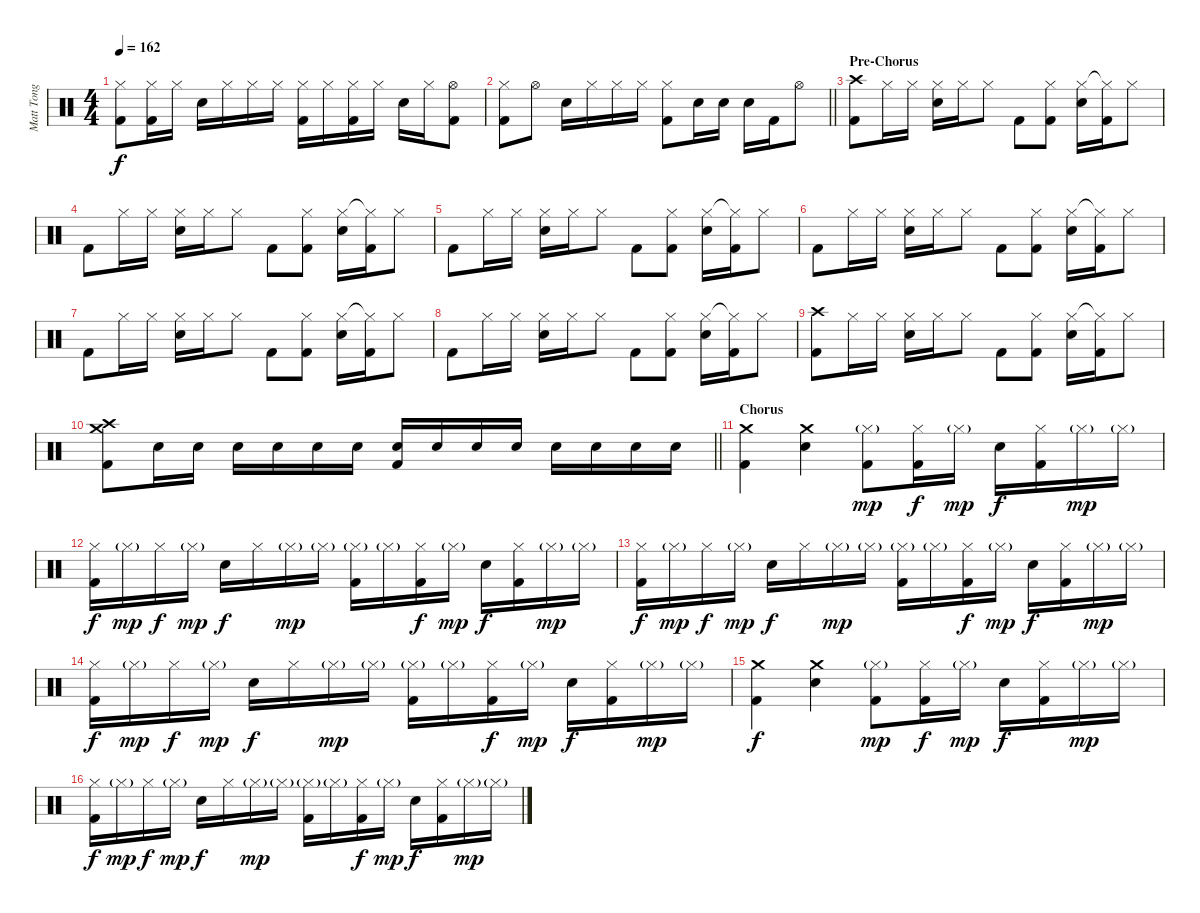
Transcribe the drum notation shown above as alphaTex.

\track ("Matt Tong" "Matt Tong") {instrument percussion}
\staff {score}
\articulation defaults
\ts (4 4)
\tempo 162
\clef neutral
\ks c
("Hi-Hat (closed)" "Kick (hit) 2").8{dy f} ("Hi-Hat (closed)" "Kick (hit) 2").16 "Hi-Hat (closed)".16 "Snare (hit) 2".16 "Hi-Hat (closed)".16 "Hi-Hat (closed)".16 "Hi-Hat (closed)".16 ("Hi-Hat (closed)" "Kick (hit) 2").16 "Hi-Hat (closed)".16 ("Hi-Hat (closed)" "Kick (hit) 2").16 "Hi-Hat (closed)".16 "Snare (hit) 2".16 "Hi-Hat (closed)".16 ("Hi-Hat (open)" "Kick (hit) 2").8 |
\barLineRight lightlight
("Hi-Hat (closed)" "Kick (hit) 2").8 "Hi-Hat (open)".8 "Snare (hit) 2".16 "Hi-Hat (closed)".16 "Hi-Hat (closed)".16 "Hi-Hat (closed)".16 ("Hi-Hat (closed)" "Kick (hit) 2").8 "Snare (hit) 2".16 "Snare (hit) 2".16 "Snare (hit) 2".16 "Kick (hit) 2".16 "Hi-Hat (open)".8 |
\section ("" "Pre-Chorus")
("Crash high (hit)" "Kick (hit) 2").8 "Hi-Hat (closed)".16 "Hi-Hat (closed)".16 ("Hi-Hat (closed)" "Snare (hit) 2").16 "Hi-Hat (closed)".16 "Hi-Hat (closed)".8 "Kick (hit) 2".8 ("Hi-Hat (closed)" "Kick (hit) 2").8 ("Hi-Hat (closed)" "Snare (hit) 2").16 ("Hi-Hat (closed)"{t} "Kick (hit) 2").16 "Hi-Hat (closed)".8 |
"Kick (hit) 2".8 "Hi-Hat (closed)".16 "Hi-Hat (closed)".16 ("Hi-Hat (closed)" "Snare (hit) 2").16 "Hi-Hat (closed)".16 "Hi-Hat (closed)".8 "Kick (hit) 2".8 ("Hi-Hat (closed)" "Kick (hit) 2").8 ("Hi-Hat (closed)" "Snare (hit) 2").16 ("Hi-Hat (closed)"{t} "Kick (hit) 2").16 "Hi-Hat (closed)".8 |
"Kick (hit) 2".8 "Hi-Hat (closed)".16 "Hi-Hat (closed)".16 ("Hi-Hat (closed)" "Snare (hit) 2").16 "Hi-Hat (closed)".16 "Hi-Hat (closed)".8 "Kick (hit) 2".8 ("Hi-Hat (closed)" "Kick (hit) 2").8 ("Hi-Hat (closed)" "Snare (hit) 2").16 ("Hi-Hat (closed)"{t} "Kick (hit) 2").16 "Hi-Hat (closed)".8 |
"Kick (hit) 2".8 "Hi-Hat (closed)".16 "Hi-Hat (closed)".16 ("Hi-Hat (closed)" "Snare (hit) 2").16 "Hi-Hat (closed)".16 "Hi-Hat (closed)".8 "Kick (hit) 2".8 ("Hi-Hat (closed)" "Kick (hit) 2").8 ("Hi-Hat (closed)" "Snare (hit) 2").16 ("Hi-Hat (closed)"{t} "Kick (hit) 2").16 "Hi-Hat (closed)".8 |
"Kick (hit) 2".8 "Hi-Hat (closed)".16 "Hi-Hat (closed)".16 ("Hi-Hat (closed)" "Snare (hit) 2").16 "Hi-Hat (closed)".16 "Hi-Hat (closed)".8 "Kick (hit) 2".8 ("Hi-Hat (closed)" "Kick (hit) 2").8 ("Hi-Hat (closed)" "Snare (hit) 2").16 ("Hi-Hat (closed)"{t} "Kick (hit) 2").16 "Hi-Hat (closed)".8 |
"Kick (hit) 2".8 "Hi-Hat (closed)".16 "Hi-Hat (closed)".16 ("Hi-Hat (closed)" "Snare (hit) 2").16 "Hi-Hat (closed)".16 "Hi-Hat (closed)".8 "Kick (hit) 2".8 ("Hi-Hat (closed)" "Kick (hit) 2").8 ("Hi-Hat (closed)" "Snare (hit) 2").16 ("Hi-Hat (closed)"{t} "Kick (hit) 2").16 "Hi-Hat (closed)".8 |
("Crash high (hit)" "Kick (hit) 2").8 "Hi-Hat (closed)".16 "Hi-Hat (closed)".16 ("Hi-Hat (closed)" "Snare (hit) 2").16 "Hi-Hat (closed)".16 "Hi-Hat (closed)".8 "Kick (hit) 2".8 ("Hi-Hat (closed)" "Kick (hit) 2").8 ("Hi-Hat (closed)" "Snare (hit) 2").16 ("Hi-Hat (closed)"{t} "Kick (hit) 2").16 "Hi-Hat (closed)".8 |
\barLineRight lightlight
("Crash medium (hit)" "Crash high (hit)" "Kick (hit) 2").8 "Snare (hit) 2".16 "Snare (hit) 2".16 "Snare (hit) 2".16 "Snare (hit) 2".16 "Snare (hit) 2".16 "Snare (hit) 2".16 ("Snare (hit) 2" "Kick (hit) 2").16 "Snare (hit) 2".16 "Snare (hit) 2".16 "Snare (hit) 2".16 "Snare (hit) 2".16 "Snare (hit) 2".16 "Snare (hit) 2".16 "Snare (hit) 2".16 |
\section ("" "Chorus")
("Crash medium (hit)" "Kick (hit) 2").4 ("Crash medium (hit)" "Snare (hit) 2").4 ("Hi-Hat (closed)"{g} "Kick (hit) 2").8{dy mp} ("Hi-Hat (closed)" "Kick (hit) 2").16{dy f} "Hi-Hat (closed)"{g}.16{dy mp} "Snare (hit) 2".16{dy f} ("Hi-Hat (closed)" "Kick (hit) 2").16 "Hi-Hat (closed)"{g}.16{dy mp} "Hi-Hat (closed)"{g}.16 |
("Hi-Hat (closed)" "Kick (hit) 2").16{dy f} "Hi-Hat (closed)"{g}.16{dy mp} "Hi-Hat (closed)".16{dy f} "Hi-Hat (closed)"{g}.16{dy mp} "Snare (hit) 2".16{dy f} "Hi-Hat (closed)".16 "Hi-Hat (closed)"{g}.16{dy mp} "Hi-Hat (closed)"{g}.16 ("Hi-Hat (closed)"{g} "Kick (hit) 2").16 "Hi-Hat (closed)"{g}.16 ("Hi-Hat (closed)" "Kick (hit) 2").16{dy f} "Hi-Hat (closed)"{g}.16{dy mp} "Snare (hit) 2".16{dy f} ("Hi-Hat (closed)" "Kick (hit) 2").16 "Hi-Hat (closed)"{g}.16{dy mp} "Hi-Hat (closed)"{g}.16 |
("Hi-Hat (closed)" "Kick (hit) 2").16{dy f} "Hi-Hat (closed)"{g}.16{dy mp} "Hi-Hat (closed)".16{dy f} "Hi-Hat (closed)"{g}.16{dy mp} "Snare (hit) 2".16{dy f} "Hi-Hat (closed)".16 "Hi-Hat (closed)"{g}.16{dy mp} "Hi-Hat (closed)"{g}.16 ("Hi-Hat (closed)"{g} "Kick (hit) 2").16 "Hi-Hat (closed)"{g}.16 ("Hi-Hat (closed)" "Kick (hit) 2").16{dy f} "Hi-Hat (closed)"{g}.16{dy mp} "Snare (hit) 2".16{dy f} ("Hi-Hat (closed)" "Kick (hit) 2").16 "Hi-Hat (closed)"{g}.16{dy mp} "Hi-Hat (closed)"{g}.16 |
("Hi-Hat (closed)" "Kick (hit) 2").16{dy f} "Hi-Hat (closed)"{g}.16{dy mp} "Hi-Hat (closed)".16{dy f} "Hi-Hat (closed)"{g}.16{dy mp} "Snare (hit) 2".16{dy f} "Hi-Hat (closed)".16 "Hi-Hat (closed)"{g}.16{dy mp} "Hi-Hat (closed)"{g}.16 ("Hi-Hat (closed)"{g} "Kick (hit) 2").16 "Hi-Hat (closed)"{g}.16 ("Hi-Hat (closed)" "Kick (hit) 2").16{dy f} "Hi-Hat (closed)"{g}.16{dy mp} "Snare (hit) 2".16{dy f} ("Hi-Hat (closed)" "Kick (hit) 2").16 "Hi-Hat (closed)"{g}.16{dy mp} "Hi-Hat (closed)"{g}.16 |
("Crash medium (hit)" "Kick (hit) 2").4{dy f} ("Crash medium (hit)" "Snare (hit) 2").4 ("Hi-Hat (closed)"{g} "Kick (hit) 2").8{dy mp} ("Hi-Hat (closed)" "Kick (hit) 2").16{dy f} "Hi-Hat (closed)"{g}.16{dy mp} "Snare (hit) 2".16{dy f} ("Hi-Hat (closed)" "Kick (hit) 2").16 "Hi-Hat (closed)"{g}.16{dy mp} "Hi-Hat (closed)"{g}.16 |
("Hi-Hat (closed)" "Kick (hit) 2").16{dy f} "Hi-Hat (closed)"{g}.16{dy mp} "Hi-Hat (closed)".16{dy f} "Hi-Hat (closed)"{g}.16{dy mp} "Snare (hit) 2".16{dy f} "Hi-Hat (closed)".16 "Hi-Hat (closed)"{g}.16{dy mp} "Hi-Hat (closed)"{g}.16 ("Hi-Hat (closed)"{g} "Kick (hit) 2").16 "Hi-Hat (closed)"{g}.16 ("Hi-Hat (closed)" "Kick (hit) 2").16{dy f} "Hi-Hat (closed)"{g}.16{dy mp} "Snare (hit) 2".16{dy f} ("Hi-Hat (closed)" "Kick (hit) 2").16 "Hi-Hat (closed)"{g}.16{dy mp} "Hi-Hat (closed)"{g}.16
